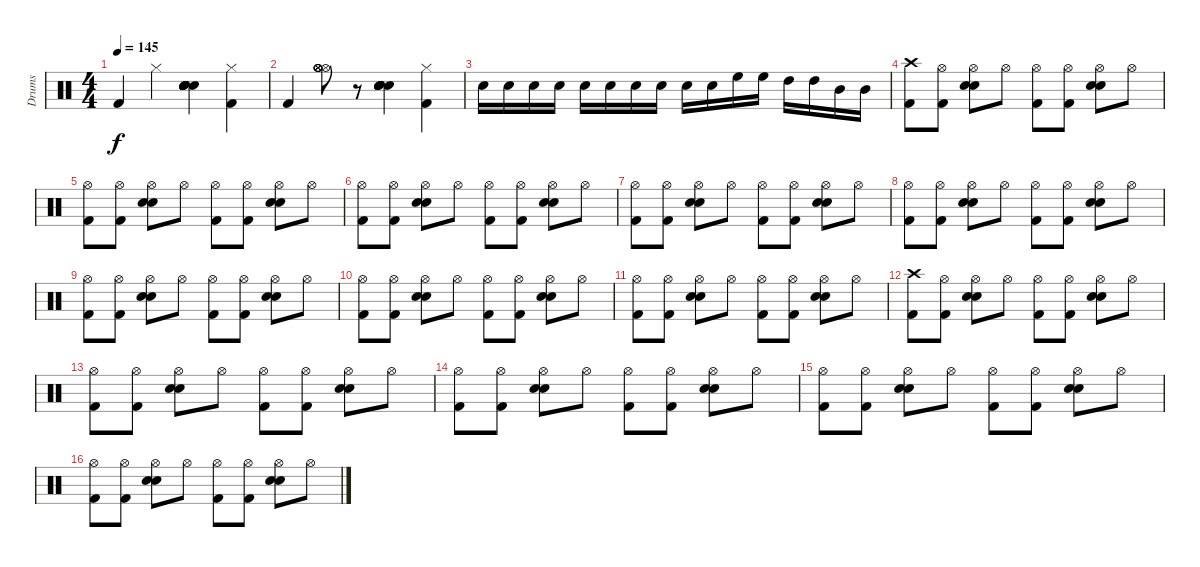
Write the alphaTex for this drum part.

\track ("Drums" "Drums") {instrument percussion}
\staff {score}
\articulation defaults
\ts (4 4)
\tempo 145
\clef neutral
\ks c "Kick (hit) 2".4{dy f} "Hi-Hat (closed)".4
("Electric Snare (hit)" "Snare (hit) 2" "Snare (hit) 2" "Snare (hit) 2" "Snare (hit) 2" "Snare (hit) 2").4 ("Kick (hit) 2" "Hi-Hat (closed)").4 |
"Kick (hit) 2".4 ("Hi-Hat (open)" "Hi-Hat (open)" "Hi-Hat (open)" "Hi-Hat (open)" "Hi-Hat (open)").8 r.8 ("Electric Snare (hit)" "Snare (hit) 2" "Snare (hit) 2" "Snare (hit) 2" "Snare (hit) 2" "Snare (hit) 2").4 ("Kick (hit) 2" "Hi-Hat (closed)").4{volume 8} |
"Electric Snare (hit)".16{volume 16} "Electric Snare (hit)".16 "Electric Snare (hit)".16 "Electric Snare (hit)".16 "Electric Snare (hit)".16 "Electric Snare (hit)".16 "Electric Snare (hit)".16 "Electric Snare (hit)".16 "Electric Snare (hit)".16 "Electric Snare (hit)".16 "High Floor Tom (hit)".16 "High Floor Tom (hit)".16 "High Tom (hit)".16 "High Tom (hit)".16 "Mid Tom (hit)".16 "Mid Tom (hit)".16 |
("Crash high (hit)" "Kick (hit) 2").8 ("Hi-Hat (open)" "Kick (hit) 2").8 ("Hi-Hat (open)" "Electric Snare (hit)" "Snare (hit) 2").8 "Hi-Hat (open)".8 ("Hi-Hat (open)" "Kick (hit) 2").8 ("Hi-Hat (open)" "Kick (hit) 2").8 ("Hi-Hat (open)" "Electric Snare (hit)" "Snare (hit) 2").8 "Hi-Hat (open)".8 |
("Hi-Hat (open)" "Kick (hit) 2").8 ("Hi-Hat (open)" "Kick (hit) 2").8 ("Hi-Hat (open)" "Electric Snare (hit)" "Snare (hit) 2").8 "Hi-Hat (open)".8 ("Hi-Hat (open)" "Kick (hit) 2").8 ("Hi-Hat (open)" "Kick (hit) 2").8 ("Hi-Hat (open)" "Electric Snare (hit)" "Snare (hit) 2").8 "Hi-Hat (open)".8 |
("Hi-Hat (open)" "Kick (hit) 2").8 ("Hi-Hat (open)" "Kick (hit) 2").8 ("Hi-Hat (open)" "Electric Snare (hit)" "Snare (hit) 2").8 "Hi-Hat (open)".8 ("Hi-Hat (open)" "Kick (hit) 2").8 ("Hi-Hat (open)" "Kick (hit) 2").8 ("Hi-Hat (open)" "Electric Snare (hit)" "Snare (hit) 2").8 "Hi-Hat (open)".8 |
("Hi-Hat (open)" "Kick (hit) 2").8 ("Hi-Hat (open)" "Kick (hit) 2").8 ("Hi-Hat (open)" "Electric Snare (hit)" "Snare (hit) 2").8 "Hi-Hat (open)".8 ("Hi-Hat (open)" "Kick (hit) 2").8 ("Hi-Hat (open)" "Kick (hit) 2").8 ("Hi-Hat (open)" "Electric Snare (hit)" "Snare (hit) 2").8 "Hi-Hat (open)".8 |
("Hi-Hat (open)" "Kick (hit) 2").8 ("Hi-Hat (open)" "Kick (hit) 2").8 ("Hi-Hat (open)" "Electric Snare (hit)" "Snare (hit) 2").8 "Hi-Hat (open)".8 ("Hi-Hat (open)" "Kick (hit) 2").8 ("Hi-Hat (open)" "Kick (hit) 2").8 ("Hi-Hat (open)" "Electric Snare (hit)" "Snare (hit) 2").8 "Hi-Hat (open)".8 |
("Hi-Hat (open)" "Kick (hit) 2").8 ("Hi-Hat (open)" "Kick (hit) 2").8 ("Hi-Hat (open)" "Electric Snare (hit)" "Snare (hit) 2").8 "Hi-Hat (open)".8 ("Hi-Hat (open)" "Kick (hit) 2").8 ("Hi-Hat (open)" "Kick (hit) 2").8 ("Hi-Hat (open)" "Electric Snare (hit)" "Snare (hit) 2").8 "Hi-Hat (open)".8 |
("Hi-Hat (open)" "Kick (hit) 2").8 ("Hi-Hat (open)" "Kick (hit) 2").8 ("Hi-Hat (open)" "Electric Snare (hit)" "Snare (hit) 2").8 "Hi-Hat (open)".8 ("Hi-Hat (open)" "Kick (hit) 2").8 ("Hi-Hat (open)" "Kick (hit) 2").8 ("Hi-Hat (open)" "Electric Snare (hit)" "Snare (hit) 2").8 "Hi-Hat (open)".8 |
("Hi-Hat (open)" "Kick (hit) 2").8 ("Hi-Hat (open)" "Kick (hit) 2").8 ("Hi-Hat (open)" "Electric Snare (hit)" "Snare (hit) 2").8 "Hi-Hat (open)".8 ("Hi-Hat (open)" "Kick (hit) 2").8 ("Hi-Hat (open)" "Kick (hit) 2").8 ("Hi-Hat (open)" "Electric Snare (hit)" "Snare (hit) 2").8 "Hi-Hat (open)".8 |
("Crash high (hit)" "Kick (hit) 2").8 ("Hi-Hat (open)" "Kick (hit) 2").8 ("Hi-Hat (open)" "Electric Snare (hit)" "Snare (hit) 2").8 "Hi-Hat (open)".8 ("Hi-Hat (open)" "Kick (hit) 2").8 ("Hi-Hat (open)" "Kick (hit) 2").8 ("Hi-Hat (open)" "Electric Snare (hit)" "Snare (hit) 2").8 "Hi-Hat (open)".8 |
("Hi-Hat (open)" "Kick (hit) 2").8 ("Hi-Hat (open)" "Kick (hit) 2").8 ("Hi-Hat (open)" "Electric Snare (hit)" "Snare (hit) 2").8 "Hi-Hat (open)".8 ("Hi-Hat (open)" "Kick (hit) 2").8 ("Hi-Hat (open)" "Kick (hit) 2").8 ("Hi-Hat (open)" "Electric Snare (hit)" "Snare (hit) 2").8 "Hi-Hat (open)".8 |
("Hi-Hat (open)" "Kick (hit) 2").8 ("Hi-Hat (open)" "Kick (hit) 2").8 ("Hi-Hat (open)" "Electric Snare (hit)" "Snare (hit) 2").8 "Hi-Hat (open)".8 ("Hi-Hat (open)" "Kick (hit) 2").8 ("Hi-Hat (open)" "Kick (hit) 2").8 ("Hi-Hat (open)" "Electric Snare (hit)" "Snare (hit) 2").8 "Hi-Hat (open)".8 |
("Hi-Hat (open)" "Kick (hit) 2").8 ("Hi-Hat (open)" "Kick (hit) 2").8 ("Hi-Hat (open)" "Electric Snare (hit)" "Snare (hit) 2").8 "Hi-Hat (open)".8 ("Hi-Hat (open)" "Kick (hit) 2").8 ("Hi-Hat (open)" "Kick (hit) 2").8 ("Hi-Hat (open)" "Electric Snare (hit)" "Snare (hit) 2").8 "Hi-Hat (open)".8 |
("Hi-Hat (open)" "Kick (hit) 2").8 ("Hi-Hat (open)" "Kick (hit) 2").8 ("Hi-Hat (open)" "Electric Snare (hit)" "Snare (hit) 2").8 "Hi-Hat (open)".8 ("Hi-Hat (open)" "Kick (hit) 2").8 ("Hi-Hat (open)" "Kick (hit) 2").8 ("Hi-Hat (open)" "Electric Snare (hit)" "Snare (hit) 2").8 "Hi-Hat (open)".8
